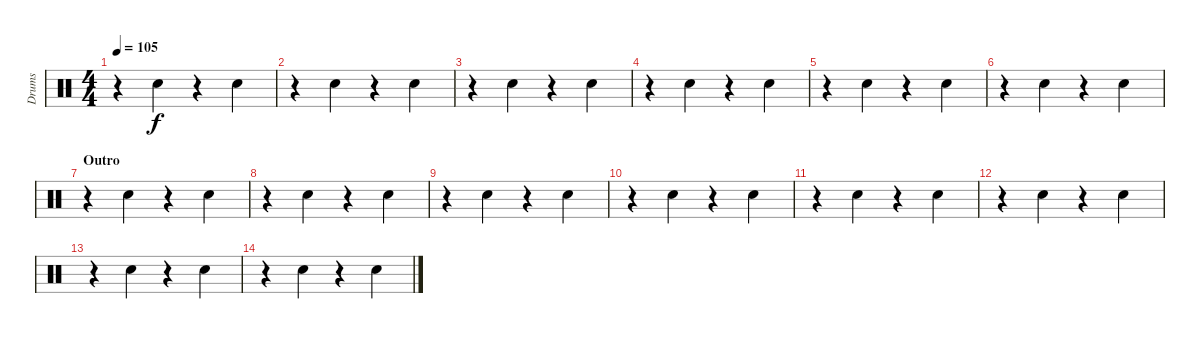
\track ("Drums" "Drums") {instrument percussion}
\staff {score}
\articulation defaults
\ts (4 4)
\tempo 105
\clef neutral
\ks c
r.4{dy f} "Hand Clap (hit)".4 r.4 "Hand Clap (hit)".4 |
r.4 "Hand Clap (hit)".4 r.4 "Hand Clap (hit)".4 |
r.4 "Hand Clap (hit)".4 r.4 "Hand Clap (hit)".4 |
r.4 "Hand Clap (hit)".4 r.4 "Hand Clap (hit)".4 |
r.4 "Hand Clap (hit)".4 r.4 "Hand Clap (hit)".4 |
r.4 "Hand Clap (hit)".4 r.4 "Hand Clap (hit)".4 |
\section ("" "Outro")
r.4 "Hand Clap (hit)".4 r.4 "Hand Clap (hit)".4 |
r.4 "Hand Clap (hit)".4 r.4 "Hand Clap (hit)".4 |
r.4 "Hand Clap (hit)".4 r.4 "Hand Clap (hit)".4 |
r.4 "Hand Clap (hit)".4 r.4 "Hand Clap (hit)".4 |
r.4 "Hand Clap (hit)".4 r.4 "Hand Clap (hit)".4 |
r.4 "Hand Clap (hit)".4 r.4 "Hand Clap (hit)".4 |
r.4 "Hand Clap (hit)".4 r.4 "Hand Clap (hit)".4 |
r.4 "Hand Clap (hit)".4 r.4 "Hand Clap (hit)".4
